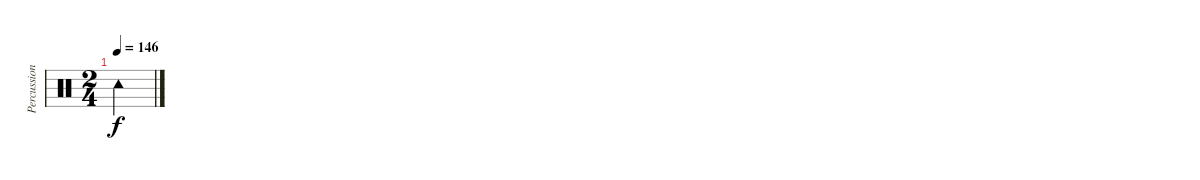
\track ("Percussions" "Percussion") {instrument percussion}
\staff {score}
\articulation defaults
\ts (2 4)
\tempo 146
\clef neutral
\ks c "Tambourine (hit)".4{dy f}
